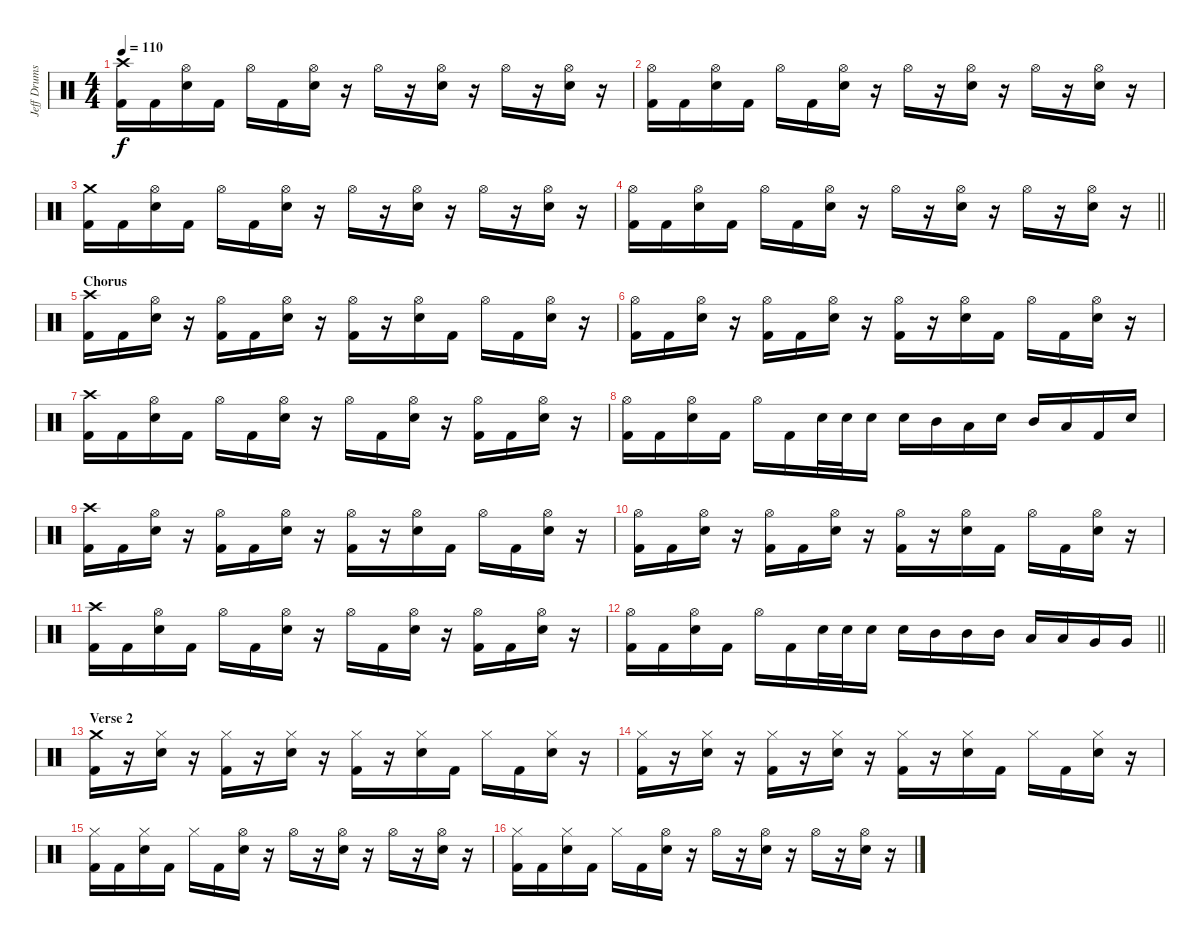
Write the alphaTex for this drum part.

\track ("Jeff Drums" "Jeff Drums") {instrument percussion}
\staff {score}
\articulation defaults
\ts (4 4)
\tempo 110
\clef neutral
\ks c
("Crash high (hit)" "Kick (hit) 2").16{dy f} "Kick (hit) 2".16 ("Hi-Hat (open)" "Electric Snare (hit)").16 "Kick (hit) 2".16 "Hi-Hat (open)".16 "Kick (hit) 2".16 ("Hi-Hat (open)" "Electric Snare (hit)").16 r.16 "Hi-Hat (open)".16 r.16 ("Hi-Hat (open)" "Electric Snare (hit)").16 r.16 "Hi-Hat (open)".16 r.16 ("Hi-Hat (open)" "Electric Snare (hit)").16 r.16 |
("Hi-Hat (open)" "Kick (hit) 2").16 "Kick (hit) 2".16 ("Hi-Hat (open)" "Electric Snare (hit)").16 "Kick (hit) 2".16 "Hi-Hat (open)".16 "Kick (hit) 2".16 ("Hi-Hat (open)" "Electric Snare (hit)").16 r.16 "Hi-Hat (open)".16 r.16 ("Hi-Hat (open)" "Electric Snare (hit)").16 r.16 "Hi-Hat (open)".16 r.16 ("Hi-Hat (open)" "Electric Snare (hit)").16 r.16 |
("Crash medium (hit)" "Kick (hit) 2").16 "Kick (hit) 2".16 ("Hi-Hat (open)" "Electric Snare (hit)").16 "Kick (hit) 2".16 "Hi-Hat (open)".16 "Kick (hit) 2".16 ("Hi-Hat (open)" "Electric Snare (hit)").16 r.16 "Hi-Hat (open)".16 r.16 ("Hi-Hat (open)" "Electric Snare (hit)").16 r.16 "Hi-Hat (open)".16 r.16 ("Hi-Hat (open)" "Electric Snare (hit)").16 r.16 |
\barLineRight lightlight
("Hi-Hat (open)" "Kick (hit) 2").16 "Kick (hit) 2".16 ("Hi-Hat (open)" "Electric Snare (hit)").16 "Kick (hit) 2".16 "Hi-Hat (open)".16 "Kick (hit) 2".16 ("Hi-Hat (open)" "Electric Snare (hit)").16 r.16 "Hi-Hat (open)".16 r.16 ("Hi-Hat (open)" "Electric Snare (hit)").16 r.16 "Hi-Hat (open)".16 r.16 ("Hi-Hat (open)" "Electric Snare (hit)").16 r.16 |
\section ("" "Chorus")
("Crash high (hit)" "Kick (hit) 2").16 "Kick (hit) 2".16 ("Hi-Hat (open)" "Electric Snare (hit)").16 r.16 ("Hi-Hat (open)" "Kick (hit) 2").16 "Kick (hit) 2".16 ("Hi-Hat (open)" "Electric Snare (hit)").16 r.16 ("Hi-Hat (open)" "Kick (hit) 2").16 r.16 ("Hi-Hat (open)" "Electric Snare (hit)").16 "Kick (hit) 2".16 "Hi-Hat (open)".16 "Kick (hit) 2".16 ("Hi-Hat (open)" "Electric Snare (hit)").16 r.16 |
("Hi-Hat (open)" "Kick (hit) 2").16 "Kick (hit) 2".16 ("Hi-Hat (open)" "Electric Snare (hit)").16 r.16 ("Hi-Hat (open)" "Kick (hit) 2").16 "Kick (hit) 2".16 ("Hi-Hat (open)" "Electric Snare (hit)").16 r.16 ("Hi-Hat (open)" "Kick (hit) 2").16 r.16 ("Hi-Hat (open)" "Electric Snare (hit)").16 "Kick (hit) 2".16 "Hi-Hat (open)".16 "Kick (hit) 2".16 ("Hi-Hat (open)" "Electric Snare (hit)").16 r.16 |
("Crash high (hit)" "Kick (hit) 2").16 "Kick (hit) 2".16 ("Hi-Hat (open)" "Electric Snare (hit)").16 "Kick (hit) 2".16 "Hi-Hat (open)".16 "Kick (hit) 2".16 ("Hi-Hat (open)" "Electric Snare (hit)").16 r.16 "Hi-Hat (open)".16 "Kick (hit) 2".16 ("Hi-Hat (open)" "Electric Snare (hit)").16 r.16 ("Hi-Hat (open)" "Kick (hit) 2").16 "Kick (hit) 2".16 ("Hi-Hat (open)" "Electric Snare (hit)").16 r.16 |
("Hi-Hat (open)" "Kick (hit) 2").16 "Kick (hit) 2".16 ("Hi-Hat (open)" "Electric Snare (hit)").16 "Kick (hit) 2".16 "Hi-Hat (open)".16 "Kick (hit) 2".16 "Electric Snare (hit)".32 "Electric Snare (hit)".32 "Electric Snare (hit)".16 "Electric Snare (hit)".16 "Mid Tom (hit)".16 "Low Tom (hit)".16 "Electric Snare (hit)".16 "Mid Tom (hit)".16 "Low Tom (hit)".16 "Kick (hit) 2".16 "Electric Snare (hit)".16 |
("Crash high (hit)" "Kick (hit) 2").16 "Kick (hit) 2".16 ("Hi-Hat (open)" "Electric Snare (hit)").16 r.16 ("Hi-Hat (open)" "Kick (hit) 2").16 "Kick (hit) 2".16 ("Hi-Hat (open)" "Electric Snare (hit)").16 r.16 ("Hi-Hat (open)" "Kick (hit) 2").16 r.16 ("Hi-Hat (open)" "Electric Snare (hit)").16 "Kick (hit) 2".16 "Hi-Hat (open)".16 "Kick (hit) 2".16 ("Hi-Hat (open)" "Electric Snare (hit)").16 r.16 |
("Hi-Hat (open)" "Kick (hit) 2").16 "Kick (hit) 2".16 ("Hi-Hat (open)" "Electric Snare (hit)").16 r.16 ("Hi-Hat (open)" "Kick (hit) 2").16 "Kick (hit) 2".16 ("Hi-Hat (open)" "Electric Snare (hit)").16 r.16 ("Hi-Hat (open)" "Kick (hit) 2").16 r.16 ("Hi-Hat (open)" "Electric Snare (hit)").16 "Kick (hit) 2".16 "Hi-Hat (open)".16 "Kick (hit) 2".16 ("Hi-Hat (open)" "Electric Snare (hit)").16 r.16 |
("Crash high (hit)" "Kick (hit) 2").16 "Kick (hit) 2".16 ("Hi-Hat (open)" "Electric Snare (hit)").16 "Kick (hit) 2".16 "Hi-Hat (open)".16 "Kick (hit) 2".16 ("Hi-Hat (open)" "Electric Snare (hit)").16 r.16 "Hi-Hat (open)".16 "Kick (hit) 2".16 ("Hi-Hat (open)" "Electric Snare (hit)").16 r.16 ("Hi-Hat (open)" "Kick (hit) 2").16 "Kick (hit) 2".16 ("Hi-Hat (open)" "Electric Snare (hit)").16 r.16 |
\barLineRight lightlight
("Hi-Hat (open)" "Kick (hit) 2").16 "Kick (hit) 2".16 ("Hi-Hat (open)" "Electric Snare (hit)").16 "Kick (hit) 2".16 "Hi-Hat (open)".16 "Kick (hit) 2".16 "Electric Snare (hit)".32 "Electric Snare (hit)".32 "Electric Snare (hit)".16 "Electric Snare (hit)".16 "Mid Tom (hit)".16 "Mid Tom (hit)".16 "Mid Tom (hit)".16 "Low Tom (hit)".16 "Low Tom (hit)".16 "Very Low Tom (hit)".16 "Very Low Tom (hit)".16 |
\section ("" "Verse 2")
("Crash medium (hit)" "Kick (hit) 2").16 r.16 ("Hi-Hat (closed)" "Electric Snare (hit)").16 r.16 ("Hi-Hat (closed)" "Kick (hit) 2").16 r.16 ("Hi-Hat (closed)" "Electric Snare (hit)").16 r.16 ("Hi-Hat (closed)" "Kick (hit) 2").16 r.16 ("Hi-Hat (closed)" "Electric Snare (hit)").16 "Kick (hit) 2".16 "Hi-Hat (closed)".16 "Kick (hit) 2".16 ("Hi-Hat (closed)" "Electric Snare (hit)").16 r.16 |
("Hi-Hat (closed)" "Kick (hit) 2").16 r.16 ("Hi-Hat (closed)" "Electric Snare (hit)").16 r.16 ("Hi-Hat (closed)" "Kick (hit) 2").16 r.16 ("Hi-Hat (closed)" "Electric Snare (hit)").16 r.16 ("Hi-Hat (closed)" "Kick (hit) 2").16 r.16 ("Hi-Hat (closed)" "Electric Snare (hit)").16 "Kick (hit) 2".16 "Hi-Hat (closed)".16 "Kick (hit) 2".16 ("Hi-Hat (closed)" "Electric Snare (hit)").16 r.16 |
("Hi-Hat (closed)" "Kick (hit) 2").16 "Kick (hit) 2".16 ("Hi-Hat (closed)" "Electric Snare (hit)").16 "Kick (hit) 2".16 "Hi-Hat (closed)".16 "Kick (hit) 2".16 ("Hi-Hat (open)" "Electric Snare (hit)").16 r.16 "Hi-Hat (open)".16 r.16 ("Hi-Hat (open)" "Electric Snare (hit)").16 r.16 "Hi-Hat (open)".16 r.16 ("Hi-Hat (open)" "Electric Snare (hit)").16 r.16 |
("Hi-Hat (closed)" "Kick (hit) 2").16 "Kick (hit) 2".16 ("Hi-Hat (closed)" "Electric Snare (hit)").16 "Kick (hit) 2".16 "Hi-Hat (closed)".16 "Kick (hit) 2".16 ("Hi-Hat (open)" "Electric Snare (hit)").16 r.16 "Hi-Hat (open)".16 r.16 ("Hi-Hat (open)" "Electric Snare (hit)").16 r.16 "Hi-Hat (open)".16 r.16 ("Hi-Hat (open)" "Electric Snare (hit)").16 r.16
